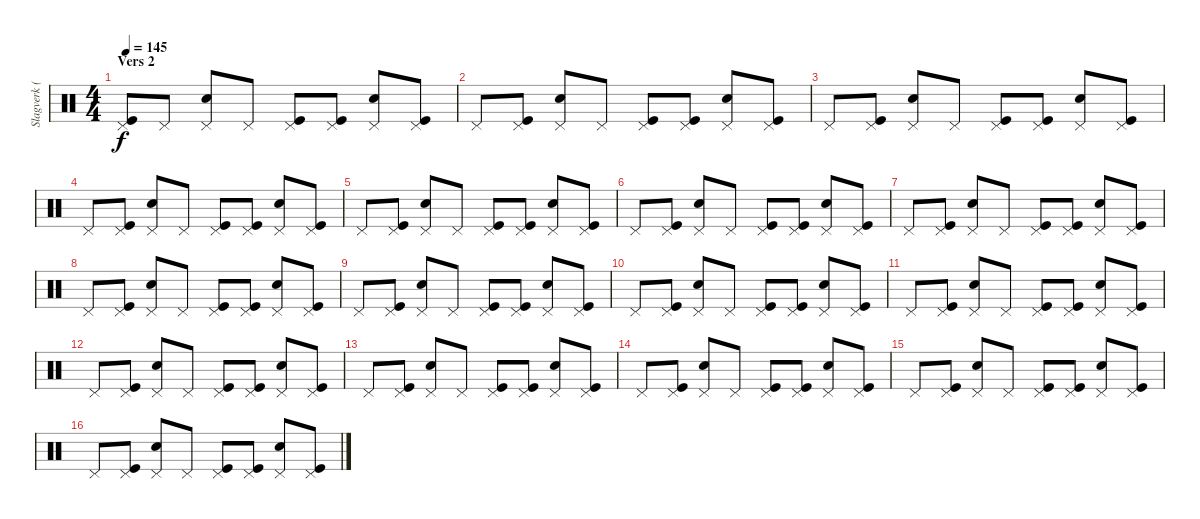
\track ("Slagverk (Jan)" "Slagverk (") {instrument percussion}
\staff {score}
\articulation defaults
\ts (4 4)
\section ("" "Vers 2")
\tempo 145
\clef neutral
\ks c
("Pedal Hi-Hat (hit)" "Kick (hit)").8{dy f} "Pedal Hi-Hat (hit)".8 ("Pedal Hi-Hat (hit)" "Snare (hit) 2").8 "Pedal Hi-Hat (hit)".8 ("Pedal Hi-Hat (hit)" "Kick (hit)").8 ("Pedal Hi-Hat (hit)" "Kick (hit)").8 ("Pedal Hi-Hat (hit)" "Snare (hit) 2").8 ("Pedal Hi-Hat (hit)" "Kick (hit)").8 |
"Pedal Hi-Hat (hit)".8 ("Pedal Hi-Hat (hit)" "Kick (hit)").8 ("Pedal Hi-Hat (hit)" "Snare (hit) 2").8 "Pedal Hi-Hat (hit)".8 ("Pedal Hi-Hat (hit)" "Kick (hit)").8 ("Pedal Hi-Hat (hit)" "Kick (hit)").8 ("Pedal Hi-Hat (hit)" "Snare (hit) 2").8 ("Pedal Hi-Hat (hit)" "Kick (hit)").8 |
"Pedal Hi-Hat (hit)".8 ("Pedal Hi-Hat (hit)" "Kick (hit)").8 ("Pedal Hi-Hat (hit)" "Snare (hit) 2").8 "Pedal Hi-Hat (hit)".8 ("Pedal Hi-Hat (hit)" "Kick (hit)").8 ("Pedal Hi-Hat (hit)" "Kick (hit)").8 ("Pedal Hi-Hat (hit)" "Snare (hit) 2").8 ("Pedal Hi-Hat (hit)" "Kick (hit)").8 |
"Pedal Hi-Hat (hit)".8 ("Pedal Hi-Hat (hit)" "Kick (hit)").8 ("Pedal Hi-Hat (hit)" "Snare (hit) 2").8 "Pedal Hi-Hat (hit)".8 ("Pedal Hi-Hat (hit)" "Kick (hit)").8 ("Pedal Hi-Hat (hit)" "Kick (hit)").8 ("Pedal Hi-Hat (hit)" "Snare (hit) 2").8 ("Pedal Hi-Hat (hit)" "Kick (hit)").8 |
"Pedal Hi-Hat (hit)".8 ("Pedal Hi-Hat (hit)" "Kick (hit)").8 ("Pedal Hi-Hat (hit)" "Snare (hit) 2").8 "Pedal Hi-Hat (hit)".8 ("Pedal Hi-Hat (hit)" "Kick (hit)").8 ("Pedal Hi-Hat (hit)" "Kick (hit)").8 ("Pedal Hi-Hat (hit)" "Snare (hit) 2").8 ("Pedal Hi-Hat (hit)" "Kick (hit)").8 |
"Pedal Hi-Hat (hit)".8 ("Pedal Hi-Hat (hit)" "Kick (hit)").8 ("Pedal Hi-Hat (hit)" "Snare (hit) 2").8 "Pedal Hi-Hat (hit)".8 ("Pedal Hi-Hat (hit)" "Kick (hit)").8 ("Pedal Hi-Hat (hit)" "Kick (hit)").8 ("Pedal Hi-Hat (hit)" "Snare (hit) 2").8 ("Pedal Hi-Hat (hit)" "Kick (hit)").8 |
"Pedal Hi-Hat (hit)".8 ("Pedal Hi-Hat (hit)" "Kick (hit)").8 ("Pedal Hi-Hat (hit)" "Snare (hit) 2").8 "Pedal Hi-Hat (hit)".8 ("Pedal Hi-Hat (hit)" "Kick (hit)").8 ("Pedal Hi-Hat (hit)" "Kick (hit)").8 ("Pedal Hi-Hat (hit)" "Snare (hit) 2").8 ("Pedal Hi-Hat (hit)" "Kick (hit)").8 |
"Pedal Hi-Hat (hit)".8 ("Pedal Hi-Hat (hit)" "Kick (hit)").8 ("Pedal Hi-Hat (hit)" "Snare (hit) 2").8 "Pedal Hi-Hat (hit)".8 ("Pedal Hi-Hat (hit)" "Kick (hit)").8 ("Pedal Hi-Hat (hit)" "Kick (hit)").8 ("Pedal Hi-Hat (hit)" "Snare (hit) 2").8 ("Pedal Hi-Hat (hit)" "Kick (hit)").8 |
"Pedal Hi-Hat (hit)".8 ("Pedal Hi-Hat (hit)" "Kick (hit)").8 ("Pedal Hi-Hat (hit)" "Snare (hit) 2").8 "Pedal Hi-Hat (hit)".8 ("Pedal Hi-Hat (hit)" "Kick (hit)").8 ("Pedal Hi-Hat (hit)" "Kick (hit)").8 ("Pedal Hi-Hat (hit)" "Snare (hit) 2").8 ("Pedal Hi-Hat (hit)" "Kick (hit)").8 |
"Pedal Hi-Hat (hit)".8 ("Pedal Hi-Hat (hit)" "Kick (hit)").8 ("Pedal Hi-Hat (hit)" "Snare (hit) 2").8 "Pedal Hi-Hat (hit)".8 ("Pedal Hi-Hat (hit)" "Kick (hit)").8 ("Pedal Hi-Hat (hit)" "Kick (hit)").8 ("Pedal Hi-Hat (hit)" "Snare (hit) 2").8 ("Pedal Hi-Hat (hit)" "Kick (hit)").8 |
"Pedal Hi-Hat (hit)".8 ("Pedal Hi-Hat (hit)" "Kick (hit)").8 ("Pedal Hi-Hat (hit)" "Snare (hit) 2").8 "Pedal Hi-Hat (hit)".8 ("Pedal Hi-Hat (hit)" "Kick (hit)").8 ("Pedal Hi-Hat (hit)" "Kick (hit)").8 ("Pedal Hi-Hat (hit)" "Snare (hit) 2").8 ("Pedal Hi-Hat (hit)" "Kick (hit)").8 |
"Pedal Hi-Hat (hit)".8 ("Pedal Hi-Hat (hit)" "Kick (hit)").8 ("Pedal Hi-Hat (hit)" "Snare (hit) 2").8 "Pedal Hi-Hat (hit)".8 ("Pedal Hi-Hat (hit)" "Kick (hit)").8 ("Pedal Hi-Hat (hit)" "Kick (hit)").8 ("Pedal Hi-Hat (hit)" "Snare (hit) 2").8 ("Pedal Hi-Hat (hit)" "Kick (hit)").8 |
"Pedal Hi-Hat (hit)".8 ("Pedal Hi-Hat (hit)" "Kick (hit)").8 ("Pedal Hi-Hat (hit)" "Snare (hit) 2").8 "Pedal Hi-Hat (hit)".8 ("Pedal Hi-Hat (hit)" "Kick (hit)").8 ("Pedal Hi-Hat (hit)" "Kick (hit)").8 ("Pedal Hi-Hat (hit)" "Snare (hit) 2").8 ("Pedal Hi-Hat (hit)" "Kick (hit)").8 |
"Pedal Hi-Hat (hit)".8 ("Pedal Hi-Hat (hit)" "Kick (hit)").8 ("Pedal Hi-Hat (hit)" "Snare (hit) 2").8 "Pedal Hi-Hat (hit)".8 ("Pedal Hi-Hat (hit)" "Kick (hit)").8 ("Pedal Hi-Hat (hit)" "Kick (hit)").8 ("Pedal Hi-Hat (hit)" "Snare (hit) 2").8 ("Pedal Hi-Hat (hit)" "Kick (hit)").8 |
"Pedal Hi-Hat (hit)".8 ("Pedal Hi-Hat (hit)" "Kick (hit)").8 ("Pedal Hi-Hat (hit)" "Snare (hit) 2").8 "Pedal Hi-Hat (hit)".8 ("Pedal Hi-Hat (hit)" "Kick (hit)").8 ("Pedal Hi-Hat (hit)" "Kick (hit)").8 ("Pedal Hi-Hat (hit)" "Snare (hit) 2").8 ("Pedal Hi-Hat (hit)" "Kick (hit)").8 |
"Pedal Hi-Hat (hit)".8 ("Pedal Hi-Hat (hit)" "Kick (hit)").8 ("Pedal Hi-Hat (hit)" "Snare (hit) 2").8 "Pedal Hi-Hat (hit)".8 ("Pedal Hi-Hat (hit)" "Kick (hit)").8 ("Pedal Hi-Hat (hit)" "Kick (hit)").8 ("Pedal Hi-Hat (hit)" "Snare (hit) 2").8 ("Pedal Hi-Hat (hit)" "Kick (hit)").8
